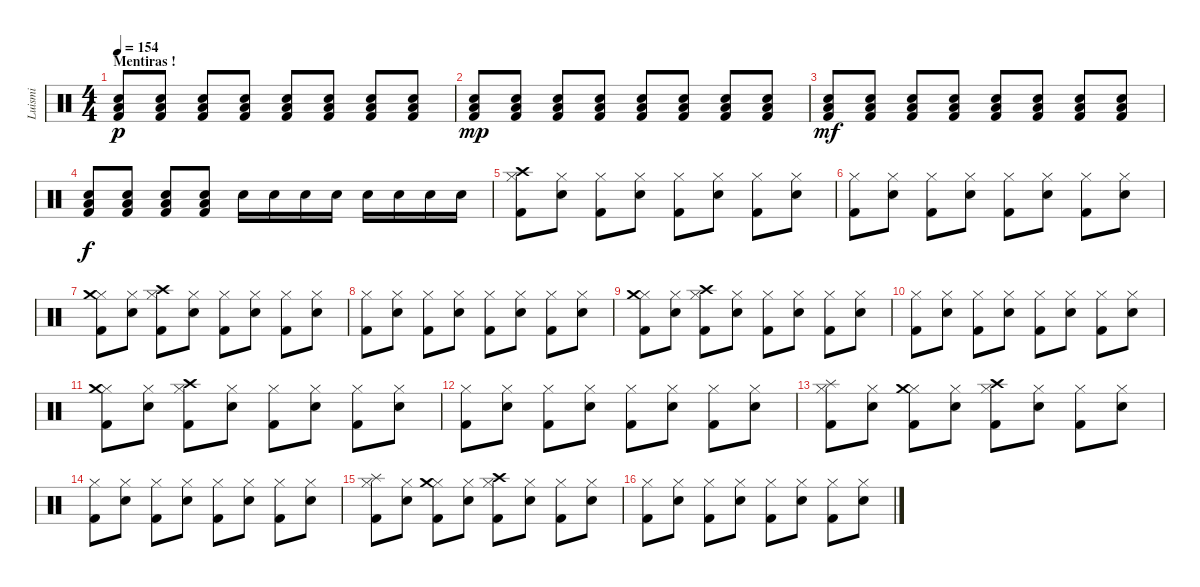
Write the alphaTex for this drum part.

\track ("Luismi" "Luismi") {instrument percussion}
\staff {score}
\articulation defaults
\ts (4 4)
\section ("" "Mentiras !")
\tempo 154
\clef neutral
\ks c
("Low Tom (hit)" "Snare (hit) 2" "Kick (hit) 2").8{dy p} ("Low Tom (hit)" "Snare (hit) 2" "Kick (hit) 2").8 ("Low Tom (hit)" "Snare (hit) 2" "Kick (hit) 2").8 ("Low Tom (hit)" "Snare (hit) 2" "Kick (hit) 2").8 ("Low Tom (hit)" "Snare (hit) 2" "Kick (hit) 2").8 ("Low Tom (hit)" "Snare (hit) 2" "Kick (hit) 2").8 ("Low Tom (hit)" "Snare (hit) 2" "Kick (hit) 2").8 ("Low Tom (hit)" "Snare (hit) 2" "Kick (hit) 2").8 |
("Low Tom (hit)" "Snare (hit) 2" "Kick (hit) 2").8{dy mp} ("Low Tom (hit)" "Snare (hit) 2" "Kick (hit) 2").8 ("Low Tom (hit)" "Snare (hit) 2" "Kick (hit) 2").8 ("Low Tom (hit)" "Snare (hit) 2" "Kick (hit) 2").8 ("Low Tom (hit)" "Snare (hit) 2" "Kick (hit) 2").8 ("Low Tom (hit)" "Snare (hit) 2" "Kick (hit) 2").8 ("Low Tom (hit)" "Snare (hit) 2" "Kick (hit) 2").8 ("Low Tom (hit)" "Snare (hit) 2" "Kick (hit) 2").8 |
("Low Tom (hit)" "Snare (hit) 2" "Kick (hit) 2").8{dy mf} ("Low Tom (hit)" "Snare (hit) 2" "Kick (hit) 2").8 ("Low Tom (hit)" "Snare (hit) 2" "Kick (hit) 2").8 ("Low Tom (hit)" "Snare (hit) 2" "Kick (hit) 2").8 ("Low Tom (hit)" "Snare (hit) 2" "Kick (hit) 2").8 ("Low Tom (hit)" "Snare (hit) 2" "Kick (hit) 2").8 ("Low Tom (hit)" "Snare (hit) 2" "Kick (hit) 2").8 ("Low Tom (hit)" "Snare (hit) 2" "Kick (hit) 2").8 |
("Low Tom (hit)" "Snare (hit) 2" "Kick (hit) 2").8{dy f} ("Low Tom (hit)" "Snare (hit) 2" "Kick (hit) 2").8 ("Low Tom (hit)" "Snare (hit) 2" "Kick (hit) 2").8 ("Low Tom (hit)" "Snare (hit) 2" "Kick (hit) 2").8 "Snare (hit) 2".16 "Snare (hit) 2".16 "Snare (hit) 2".16 "Snare (hit) 2".16 "Snare (hit) 2".16 "Snare (hit) 2".16 "Snare (hit) 2".16 "Snare (hit) 2".16 |
("Hi-Hat (closed)" "Kick (hit) 2" "Crash high (hit)").8 ("Hi-Hat (closed)" "Snare (hit) 2").8 ("Hi-Hat (closed)" "Kick (hit) 2").8 ("Hi-Hat (closed)" "Snare (hit) 2").8 ("Hi-Hat (closed)" "Kick (hit) 2").8 ("Hi-Hat (closed)" "Snare (hit) 2").8 ("Hi-Hat (closed)" "Kick (hit) 2").8 ("Hi-Hat (closed)" "Snare (hit) 2").8 |
("Hi-Hat (closed)" "Kick (hit) 2").8 ("Hi-Hat (closed)" "Snare (hit) 2").8 ("Hi-Hat (closed)" "Kick (hit) 2").8 ("Hi-Hat (closed)" "Snare (hit) 2").8 ("Hi-Hat (closed)" "Kick (hit) 2").8 ("Hi-Hat (closed)" "Snare (hit) 2").8 ("Hi-Hat (closed)" "Kick (hit) 2").8 ("Hi-Hat (closed)" "Snare (hit) 2").8 |
("Hi-Hat (closed)" "Kick (hit) 2" "Crash medium (hit)").8 ("Hi-Hat (closed)" "Snare (hit) 2").8 ("Hi-Hat (closed)" "Kick (hit) 2" "Crash high (hit)").8 ("Hi-Hat (closed)" "Snare (hit) 2").8 ("Hi-Hat (closed)" "Kick (hit) 2").8 ("Hi-Hat (closed)" "Snare (hit) 2").8 ("Hi-Hat (closed)" "Kick (hit) 2").8 ("Hi-Hat (closed)" "Snare (hit) 2").8 |
("Hi-Hat (closed)" "Kick (hit) 2").8 ("Hi-Hat (closed)" "Snare (hit) 2").8 ("Hi-Hat (closed)" "Kick (hit) 2").8 ("Hi-Hat (closed)" "Snare (hit) 2").8 ("Hi-Hat (closed)" "Kick (hit) 2").8 ("Hi-Hat (closed)" "Snare (hit) 2").8 ("Hi-Hat (closed)" "Kick (hit) 2").8 ("Hi-Hat (closed)" "Snare (hit) 2").8 |
("Hi-Hat (closed)" "Kick (hit) 2" "Crash medium (hit)").8 ("Hi-Hat (closed)" "Snare (hit) 2").8 ("Hi-Hat (closed)" "Kick (hit) 2" "Crash high (hit)").8 ("Hi-Hat (closed)" "Snare (hit) 2").8 ("Hi-Hat (closed)" "Kick (hit) 2").8 ("Hi-Hat (closed)" "Snare (hit) 2").8 ("Hi-Hat (closed)" "Kick (hit) 2").8 ("Hi-Hat (closed)" "Snare (hit) 2").8 |
("Hi-Hat (closed)" "Kick (hit) 2").8 ("Hi-Hat (closed)" "Snare (hit) 2").8 ("Hi-Hat (closed)" "Kick (hit) 2").8 ("Hi-Hat (closed)" "Snare (hit) 2").8 ("Hi-Hat (closed)" "Kick (hit) 2").8 ("Hi-Hat (closed)" "Snare (hit) 2").8 ("Hi-Hat (closed)" "Kick (hit) 2").8 ("Hi-Hat (closed)" "Snare (hit) 2").8 |
("Hi-Hat (closed)" "Kick (hit) 2" "Crash medium (hit)").8 ("Hi-Hat (closed)" "Snare (hit) 2").8 ("Hi-Hat (closed)" "Kick (hit) 2" "Crash high (hit)").8 ("Hi-Hat (closed)" "Snare (hit) 2").8 ("Hi-Hat (closed)" "Kick (hit) 2").8 ("Hi-Hat (closed)" "Snare (hit) 2").8 ("Hi-Hat (closed)" "Kick (hit) 2").8 ("Hi-Hat (closed)" "Snare (hit) 2").8 |
("Hi-Hat (closed)" "Kick (hit) 2").8 ("Hi-Hat (closed)" "Snare (hit) 2").8 ("Hi-Hat (closed)" "Kick (hit) 2").8 ("Hi-Hat (closed)" "Snare (hit) 2").8 ("Hi-Hat (closed)" "Kick (hit) 2").8 ("Hi-Hat (closed)" "Snare (hit) 2").8 ("Hi-Hat (closed)" "Kick (hit) 2").8 ("Hi-Hat (closed)" "Snare (hit) 2").8 |
("Hi-Hat (closed)" "Kick (hit) 2" "Splash (hit)").8 ("Hi-Hat (closed)" "Snare (hit) 2").8 ("Hi-Hat (closed)" "Kick (hit) 2" "Crash medium (hit)").8 ("Hi-Hat (closed)" "Snare (hit) 2").8 ("Hi-Hat (closed)" "Kick (hit) 2" "Crash high (hit)").8 ("Hi-Hat (closed)" "Snare (hit) 2").8 ("Hi-Hat (closed)" "Kick (hit) 2").8 ("Hi-Hat (closed)" "Snare (hit) 2").8 |
("Hi-Hat (closed)" "Kick (hit) 2").8 ("Hi-Hat (closed)" "Snare (hit) 2").8 ("Hi-Hat (closed)" "Kick (hit) 2").8 ("Hi-Hat (closed)" "Snare (hit) 2").8 ("Hi-Hat (closed)" "Kick (hit) 2").8 ("Hi-Hat (closed)" "Snare (hit) 2").8 ("Hi-Hat (closed)" "Kick (hit) 2").8 ("Hi-Hat (closed)" "Snare (hit) 2").8 |
("Hi-Hat (closed)" "Kick (hit) 2" "Splash (hit)").8 ("Hi-Hat (closed)" "Snare (hit) 2").8 ("Hi-Hat (closed)" "Kick (hit) 2" "Crash medium (hit)").8 ("Hi-Hat (closed)" "Snare (hit) 2").8 ("Hi-Hat (closed)" "Kick (hit) 2" "Crash high (hit)").8 ("Hi-Hat (closed)" "Snare (hit) 2").8 ("Hi-Hat (closed)" "Kick (hit) 2").8 ("Hi-Hat (closed)" "Snare (hit) 2").8 |
("Hi-Hat (closed)" "Kick (hit) 2").8 ("Hi-Hat (closed)" "Snare (hit) 2").8 ("Hi-Hat (closed)" "Kick (hit) 2").8 ("Hi-Hat (closed)" "Snare (hit) 2").8 ("Hi-Hat (closed)" "Kick (hit) 2").8 ("Hi-Hat (closed)" "Snare (hit) 2").8 ("Hi-Hat (closed)" "Kick (hit) 2").8 ("Hi-Hat (closed)" "Snare (hit) 2").8
